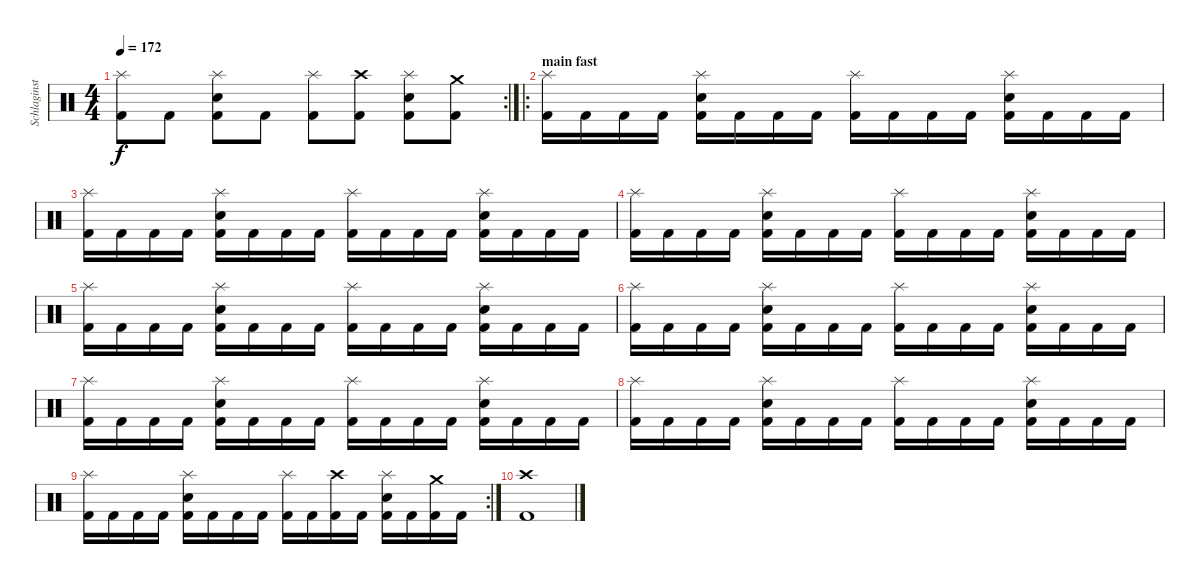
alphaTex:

\track ("Schlaginstrumente - Auswahl" "Schlaginst") {instrument percussion}
\staff {score}
\articulation defaults
\rc 2
\ts (4 4)
\tempo 172
\clef neutral
\ks c
("Splash (hit)" "Kick (hit) 2").8{dy f} "Kick (hit) 2".8 ("Electric Snare (hit)" "Splash (hit)" "Kick (hit) 2").8 "Kick (hit) 2".8 ("Splash (hit)" "Kick (hit) 2").8 ("Crash high (hit)" "Kick (hit) 2").8 ("Electric Snare (hit)" "Splash (hit)" "Kick (hit) 2").8 ("Crash medium (hit)" "Kick (hit) 2").8 |
\ro
\section ("" "main fast")
("Splash (hit)" "Kick (hit) 2").16 "Kick (hit) 2".16 "Kick (hit) 2".16 "Kick (hit) 2".16 ("Electric Snare (hit)" "Splash (hit)" "Kick (hit) 2").16 "Kick (hit) 2".16 "Kick (hit) 2".16 "Kick (hit) 2".16 ("Splash (hit)" "Kick (hit) 2").16 "Kick (hit) 2".16 "Kick (hit) 2".16 "Kick (hit) 2".16 ("Electric Snare (hit)" "Splash (hit)" "Kick (hit) 2").16 "Kick (hit) 2".16 "Kick (hit) 2".16 "Kick (hit) 2".16 |
("Splash (hit)" "Kick (hit) 2").16 "Kick (hit) 2".16 "Kick (hit) 2".16 "Kick (hit) 2".16 ("Electric Snare (hit)" "Splash (hit)" "Kick (hit) 2").16 "Kick (hit) 2".16 "Kick (hit) 2".16 "Kick (hit) 2".16 ("Splash (hit)" "Kick (hit) 2").16 "Kick (hit) 2".16 "Kick (hit) 2".16 "Kick (hit) 2".16 ("Electric Snare (hit)" "Splash (hit)" "Kick (hit) 2").16 "Kick (hit) 2".16 "Kick (hit) 2".16 "Kick (hit) 2".16 |
("Splash (hit)" "Kick (hit) 2").16 "Kick (hit) 2".16 "Kick (hit) 2".16 "Kick (hit) 2".16 ("Electric Snare (hit)" "Splash (hit)" "Kick (hit) 2").16 "Kick (hit) 2".16 "Kick (hit) 2".16 "Kick (hit) 2".16 ("Splash (hit)" "Kick (hit) 2").16 "Kick (hit) 2".16 "Kick (hit) 2".16 "Kick (hit) 2".16 ("Electric Snare (hit)" "Splash (hit)" "Kick (hit) 2").16 "Kick (hit) 2".16 "Kick (hit) 2".16 "Kick (hit) 2".16 |
("Splash (hit)" "Kick (hit) 2").16 "Kick (hit) 2".16 "Kick (hit) 2".16 "Kick (hit) 2".16 ("Electric Snare (hit)" "Splash (hit)" "Kick (hit) 2").16 "Kick (hit) 2".16 "Kick (hit) 2".16 "Kick (hit) 2".16 ("Splash (hit)" "Kick (hit) 2").16 "Kick (hit) 2".16 "Kick (hit) 2".16 "Kick (hit) 2".16 ("Electric Snare (hit)" "Splash (hit)" "Kick (hit) 2").16 "Kick (hit) 2".16 "Kick (hit) 2".16 "Kick (hit) 2".16 |
("Splash (hit)" "Kick (hit) 2").16 "Kick (hit) 2".16 "Kick (hit) 2".16 "Kick (hit) 2".16 ("Electric Snare (hit)" "Splash (hit)" "Kick (hit) 2").16 "Kick (hit) 2".16 "Kick (hit) 2".16 "Kick (hit) 2".16 ("Splash (hit)" "Kick (hit) 2").16 "Kick (hit) 2".16 "Kick (hit) 2".16 "Kick (hit) 2".16 ("Electric Snare (hit)" "Splash (hit)" "Kick (hit) 2").16 "Kick (hit) 2".16 "Kick (hit) 2".16 "Kick (hit) 2".16 |
("Splash (hit)" "Kick (hit) 2").16 "Kick (hit) 2".16 "Kick (hit) 2".16 "Kick (hit) 2".16 ("Electric Snare (hit)" "Splash (hit)" "Kick (hit) 2").16 "Kick (hit) 2".16 "Kick (hit) 2".16 "Kick (hit) 2".16 ("Splash (hit)" "Kick (hit) 2").16 "Kick (hit) 2".16 "Kick (hit) 2".16 "Kick (hit) 2".16 ("Electric Snare (hit)" "Splash (hit)" "Kick (hit) 2").16 "Kick (hit) 2".16 "Kick (hit) 2".16 "Kick (hit) 2".16 |
("Splash (hit)" "Kick (hit) 2").16 "Kick (hit) 2".16 "Kick (hit) 2".16 "Kick (hit) 2".16 ("Electric Snare (hit)" "Splash (hit)" "Kick (hit) 2").16 "Kick (hit) 2".16 "Kick (hit) 2".16 "Kick (hit) 2".16 ("Splash (hit)" "Kick (hit) 2").16 "Kick (hit) 2".16 "Kick (hit) 2".16 "Kick (hit) 2".16 ("Electric Snare (hit)" "Splash (hit)" "Kick (hit) 2").16 "Kick (hit) 2".16 "Kick (hit) 2".16 "Kick (hit) 2".16 |
\rc 2
("Splash (hit)" "Kick (hit) 2").16 "Kick (hit) 2".16 "Kick (hit) 2".16 "Kick (hit) 2".16 ("Electric Snare (hit)" "Splash (hit)" "Kick (hit) 2").16 "Kick (hit) 2".16 "Kick (hit) 2".16 "Kick (hit) 2".16 ("Splash (hit)" "Kick (hit) 2").16 "Kick (hit) 2".16 ("Crash high (hit)" "Kick (hit) 2").16 "Kick (hit) 2".16 ("Electric Snare (hit)" "Splash (hit)" "Kick (hit) 2").16 "Kick (hit) 2".16 ("Crash medium (hit)" "Kick (hit) 2").16 "Kick (hit) 2".16 |
("Crash high (hit)" "Kick (hit) 2").1
